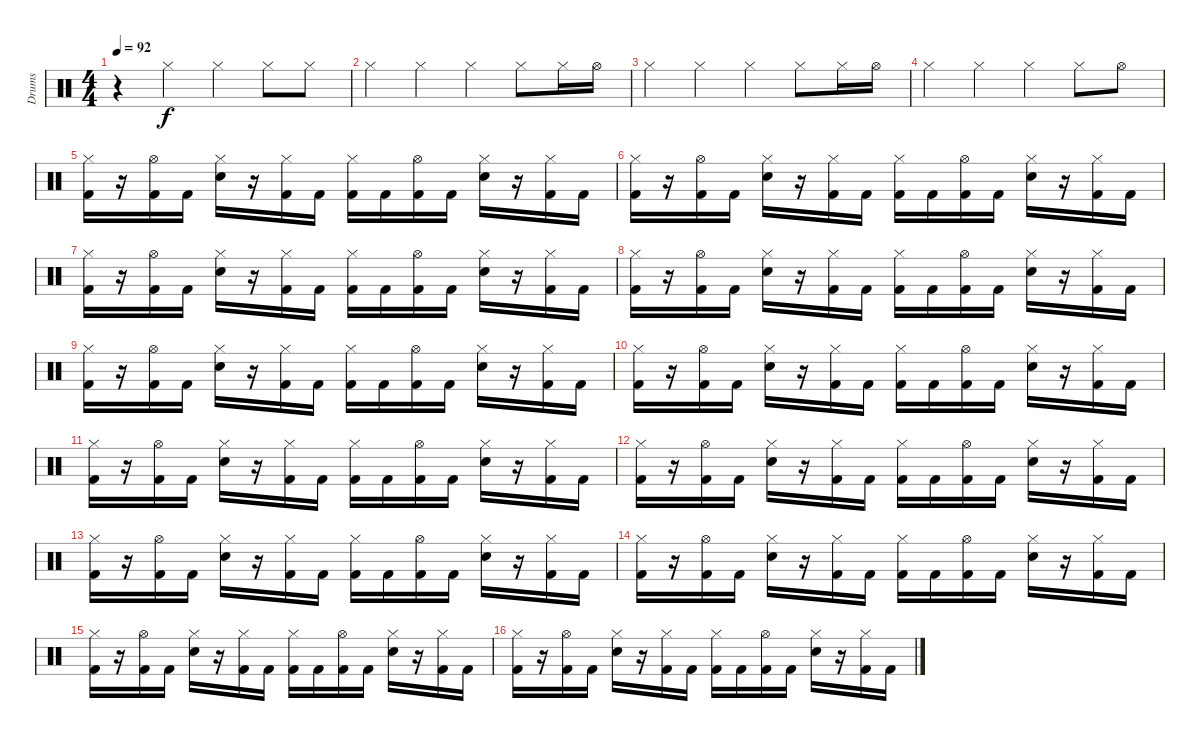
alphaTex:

\track ("Drums" "Drums") {instrument percussion}
\staff {score}
\articulation defaults
\ts (4 4)
\tempo 92
\clef neutral
\ks c
r.4{dy f} "Hi-Hat (closed)".4 "Hi-Hat (closed)".4 "Hi-Hat (closed)".8 "Hi-Hat (closed)".8 |
"Hi-Hat (closed)".4 "Hi-Hat (closed)".4 "Hi-Hat (closed)".4 "Hi-Hat (closed)".8 "Hi-Hat (closed)".16 "Hi-Hat (open)".16 |
"Hi-Hat (closed)".4 "Hi-Hat (closed)".4 "Hi-Hat (closed)".4 "Hi-Hat (closed)".8 "Hi-Hat (closed)".16 "Hi-Hat (open)".16 |
"Hi-Hat (closed)".4 "Hi-Hat (closed)".4 "Hi-Hat (closed)".4 "Hi-Hat (closed)".8 "Hi-Hat (open)".8 |
("Hi-Hat (closed)" "Kick (hit) 2").16 r.16 ("Hi-Hat (open)" "Kick (hit) 2").16 "Kick (hit) 2".16 ("Hi-Hat (closed)" "Snare (hit) 2").16 r.16 ("Hi-Hat (closed)" "Kick (hit) 2").16 "Kick (hit) 2".16 ("Hi-Hat (closed)" "Kick (hit) 2").16 "Kick (hit) 2".16 ("Hi-Hat (open)" "Kick (hit) 2").16 "Kick (hit) 2".16 ("Hi-Hat (closed)" "Snare (hit) 2").16 r.16 ("Hi-Hat (closed)" "Kick (hit) 2").16 "Kick (hit) 2".16 |
("Hi-Hat (closed)" "Kick (hit) 2").16 r.16 ("Hi-Hat (open)" "Kick (hit) 2").16 "Kick (hit) 2".16 ("Hi-Hat (closed)" "Snare (hit) 2").16 r.16 ("Hi-Hat (closed)" "Kick (hit) 2").16 "Kick (hit) 2".16 ("Hi-Hat (closed)" "Kick (hit) 2").16 "Kick (hit) 2".16 ("Hi-Hat (open)" "Kick (hit) 2").16 "Kick (hit) 2".16 ("Hi-Hat (closed)" "Snare (hit) 2").16 r.16 ("Hi-Hat (closed)" "Kick (hit) 2").16 "Kick (hit) 2".16 |
("Hi-Hat (closed)" "Kick (hit) 2").16 r.16 ("Hi-Hat (open)" "Kick (hit) 2").16 "Kick (hit) 2".16 ("Hi-Hat (closed)" "Snare (hit) 2").16 r.16 ("Hi-Hat (closed)" "Kick (hit) 2").16 "Kick (hit) 2".16 ("Hi-Hat (closed)" "Kick (hit) 2").16 "Kick (hit) 2".16 ("Hi-Hat (open)" "Kick (hit) 2").16 "Kick (hit) 2".16 ("Hi-Hat (closed)" "Snare (hit) 2").16 r.16 ("Hi-Hat (closed)" "Kick (hit) 2").16 "Kick (hit) 2".16 |
("Hi-Hat (closed)" "Kick (hit) 2").16 r.16 ("Hi-Hat (open)" "Kick (hit) 2").16 "Kick (hit) 2".16 ("Hi-Hat (closed)" "Snare (hit) 2").16 r.16 ("Hi-Hat (closed)" "Kick (hit) 2").16 "Kick (hit) 2".16 ("Hi-Hat (closed)" "Kick (hit) 2").16 "Kick (hit) 2".16 ("Hi-Hat (open)" "Kick (hit) 2").16 "Kick (hit) 2".16 ("Hi-Hat (closed)" "Snare (hit) 2").16 r.16 ("Hi-Hat (closed)" "Kick (hit) 2").16 "Kick (hit) 2".16 |
("Hi-Hat (closed)" "Kick (hit) 2").16 r.16 ("Hi-Hat (open)" "Kick (hit) 2").16 "Kick (hit) 2".16 ("Hi-Hat (closed)" "Snare (hit) 2").16 r.16 ("Hi-Hat (closed)" "Kick (hit) 2").16 "Kick (hit) 2".16 ("Hi-Hat (closed)" "Kick (hit) 2").16 "Kick (hit) 2".16 ("Hi-Hat (open)" "Kick (hit) 2").16 "Kick (hit) 2".16 ("Hi-Hat (closed)" "Snare (hit) 2").16 r.16 ("Hi-Hat (closed)" "Kick (hit) 2").16 "Kick (hit) 2".16 |
("Hi-Hat (closed)" "Kick (hit) 2").16 r.16 ("Hi-Hat (open)" "Kick (hit) 2").16 "Kick (hit) 2".16 ("Hi-Hat (closed)" "Snare (hit) 2").16 r.16 ("Hi-Hat (closed)" "Kick (hit) 2").16 "Kick (hit) 2".16 ("Hi-Hat (closed)" "Kick (hit) 2").16 "Kick (hit) 2".16 ("Hi-Hat (open)" "Kick (hit) 2").16 "Kick (hit) 2".16 ("Hi-Hat (closed)" "Snare (hit) 2").16 r.16 ("Hi-Hat (closed)" "Kick (hit) 2").16 "Kick (hit) 2".16 |
("Hi-Hat (closed)" "Kick (hit) 2").16 r.16 ("Hi-Hat (open)" "Kick (hit) 2").16 "Kick (hit) 2".16 ("Hi-Hat (closed)" "Snare (hit) 2").16 r.16 ("Hi-Hat (closed)" "Kick (hit) 2").16 "Kick (hit) 2".16 ("Hi-Hat (closed)" "Kick (hit) 2").16 "Kick (hit) 2".16 ("Hi-Hat (open)" "Kick (hit) 2").16 "Kick (hit) 2".16 ("Hi-Hat (closed)" "Snare (hit) 2").16 r.16 ("Hi-Hat (closed)" "Kick (hit) 2").16 "Kick (hit) 2".16 |
("Hi-Hat (closed)" "Kick (hit) 2").16 r.16 ("Hi-Hat (open)" "Kick (hit) 2").16 "Kick (hit) 2".16 ("Hi-Hat (closed)" "Snare (hit) 2").16 r.16 ("Hi-Hat (closed)" "Kick (hit) 2").16 "Kick (hit) 2".16 ("Hi-Hat (closed)" "Kick (hit) 2").16 "Kick (hit) 2".16 ("Hi-Hat (open)" "Kick (hit) 2").16 "Kick (hit) 2".16 ("Hi-Hat (closed)" "Snare (hit) 2").16 r.16 ("Hi-Hat (closed)" "Kick (hit) 2").16 "Kick (hit) 2".16 |
("Hi-Hat (closed)" "Kick (hit) 2").16 r.16 ("Hi-Hat (open)" "Kick (hit) 2").16 "Kick (hit) 2".16 ("Hi-Hat (closed)" "Snare (hit) 2").16 r.16 ("Hi-Hat (closed)" "Kick (hit) 2").16 "Kick (hit) 2".16 ("Hi-Hat (closed)" "Kick (hit) 2").16 "Kick (hit) 2".16 ("Hi-Hat (open)" "Kick (hit) 2").16 "Kick (hit) 2".16 ("Hi-Hat (closed)" "Snare (hit) 2").16 r.16 ("Hi-Hat (closed)" "Kick (hit) 2").16 "Kick (hit) 2".16 |
("Hi-Hat (closed)" "Kick (hit) 2").16 r.16 ("Hi-Hat (open)" "Kick (hit) 2").16 "Kick (hit) 2".16 ("Hi-Hat (closed)" "Snare (hit) 2").16 r.16 ("Hi-Hat (closed)" "Kick (hit) 2").16 "Kick (hit) 2".16 ("Hi-Hat (closed)" "Kick (hit) 2").16 "Kick (hit) 2".16 ("Hi-Hat (open)" "Kick (hit) 2").16 "Kick (hit) 2".16 ("Hi-Hat (closed)" "Snare (hit) 2").16 r.16 ("Hi-Hat (closed)" "Kick (hit) 2").16 "Kick (hit) 2".16 |
("Hi-Hat (closed)" "Kick (hit) 2").16 r.16 ("Hi-Hat (open)" "Kick (hit) 2").16 "Kick (hit) 2".16 ("Hi-Hat (closed)" "Snare (hit) 2").16 r.16 ("Hi-Hat (closed)" "Kick (hit) 2").16 "Kick (hit) 2".16 ("Hi-Hat (closed)" "Kick (hit) 2").16 "Kick (hit) 2".16 ("Hi-Hat (open)" "Kick (hit) 2").16 "Kick (hit) 2".16 ("Hi-Hat (closed)" "Snare (hit) 2").16 r.16 ("Hi-Hat (closed)" "Kick (hit) 2").16 "Kick (hit) 2".16 |
("Hi-Hat (closed)" "Kick (hit) 2").16 r.16 ("Hi-Hat (open)" "Kick (hit) 2").16 "Kick (hit) 2".16 ("Hi-Hat (closed)" "Snare (hit) 2").16 r.16 ("Hi-Hat (closed)" "Kick (hit) 2").16 "Kick (hit) 2".16 ("Hi-Hat (closed)" "Kick (hit) 2").16 "Kick (hit) 2".16 ("Hi-Hat (open)" "Kick (hit) 2").16 "Kick (hit) 2".16 ("Hi-Hat (closed)" "Snare (hit) 2").16 r.16 ("Hi-Hat (closed)" "Kick (hit) 2").16 "Kick (hit) 2".16
